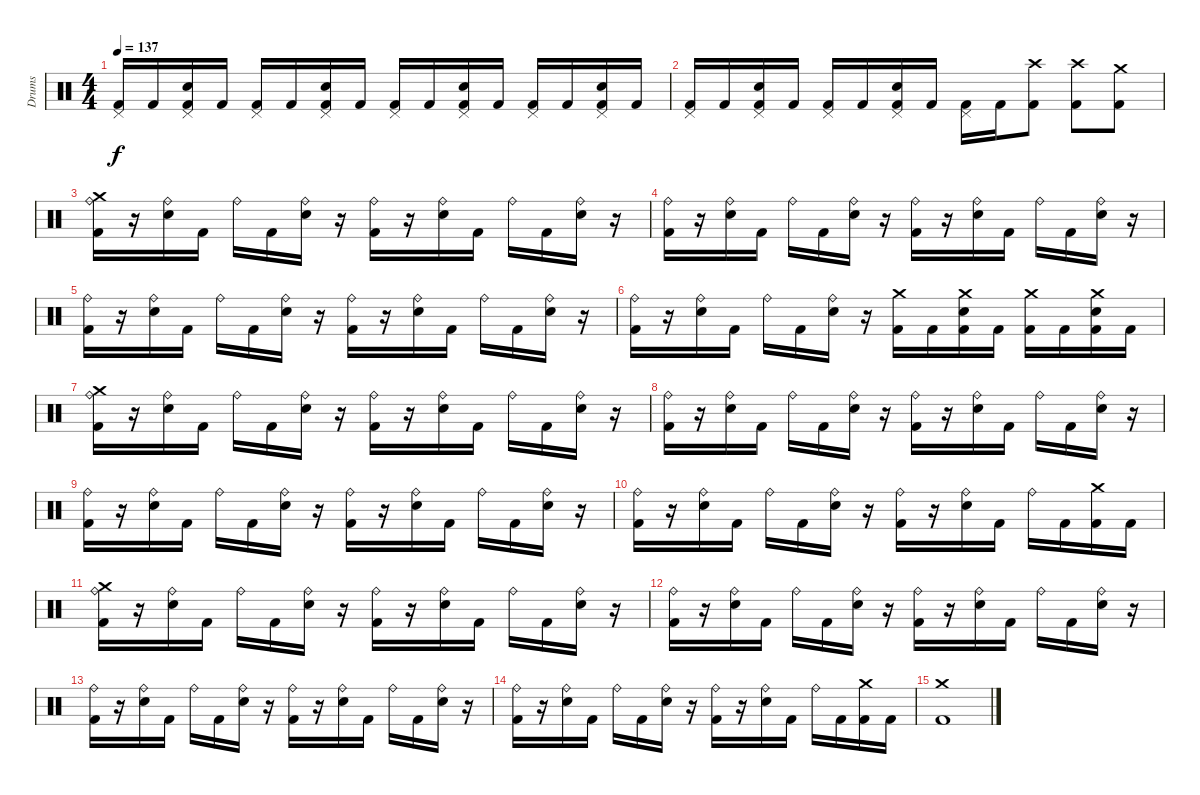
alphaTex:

\track ("Drums" "Drums") {instrument percussion}
\staff
\articulation defaults
\ts (4 4)
\tempo 137
\clef neutral
\ks c
("Pedal Hi-Hat (hit)" "Kick (hit) 2").16{dy f} "Kick (hit) 2".16 ("Pedal Hi-Hat (hit)" "Snare (hit) 2" "Kick (hit) 2").16 "Kick (hit) 2".16 ("Pedal Hi-Hat (hit)" "Kick (hit) 2").16 "Kick (hit) 2".16 ("Pedal Hi-Hat (hit)" "Snare (hit) 2" "Kick (hit) 2").16 "Kick (hit) 2".16 ("Pedal Hi-Hat (hit)" "Kick (hit) 2").16 "Kick (hit) 2".16 ("Pedal Hi-Hat (hit)" "Snare (hit) 2" "Kick (hit) 2").16 "Kick (hit) 2".16 ("Pedal Hi-Hat (hit)" "Kick (hit) 2").16 "Kick (hit) 2".16 ("Pedal Hi-Hat (hit)" "Snare (hit) 2" "Kick (hit) 2").16 "Kick (hit) 2".16 |
("Pedal Hi-Hat (hit)" "Kick (hit) 2").16 "Kick (hit) 2".16 ("Pedal Hi-Hat (hit)" "Snare (hit) 2" "Kick (hit) 2").16 "Kick (hit) 2".16 ("Pedal Hi-Hat (hit)" "Kick (hit) 2").16 "Kick (hit) 2".16 ("Pedal Hi-Hat (hit)" "Snare (hit) 2" "Kick (hit) 2").16 "Kick (hit) 2".16 ("Pedal Hi-Hat (hit)" "Kick (hit) 2").16 "Kick (hit) 2".16 ("Crash high (hit)" "Kick (hit) 2").8 ("Crash high (hit)" "Kick (hit) 2").8 ("Crash medium (hit)" "Kick (hit) 2").8 |
("Crash medium (hit)" "Ride (bell)" "Kick (hit) 2").16 r.16 ("Ride (bell)" "Snare (hit) 2").16 "Kick (hit) 2".16 "Ride (bell)".16 "Kick (hit) 2".16 ("Ride (bell)" "Snare (hit) 2").16 r.16 ("Ride (bell)" "Kick (hit) 2").16 r.16 ("Ride (bell)" "Snare (hit) 2").16 "Kick (hit) 2".16 "Ride (bell)".16 "Kick (hit) 2".16 ("Ride (bell)" "Snare (hit) 2").16 r.16 |
("Ride (bell)" "Kick (hit) 2").16 r.16 ("Ride (bell)" "Snare (hit) 2").16 "Kick (hit) 2".16 "Ride (bell)".16 "Kick (hit) 2".16 ("Ride (bell)" "Snare (hit) 2").16 r.16 ("Ride (bell)" "Kick (hit) 2").16 r.16 ("Ride (bell)" "Snare (hit) 2").16 "Kick (hit) 2".16 "Ride (bell)".16 "Kick (hit) 2".16 ("Ride (bell)" "Snare (hit) 2").16 r.16 |
("Ride (bell)" "Kick (hit) 2").16 r.16 ("Ride (bell)" "Snare (hit) 2").16 "Kick (hit) 2".16 "Ride (bell)".16 "Kick (hit) 2".16 ("Ride (bell)" "Snare (hit) 2").16 r.16 ("Ride (bell)" "Kick (hit) 2").16 r.16 ("Ride (bell)" "Snare (hit) 2").16 "Kick (hit) 2".16 "Ride (bell)".16 "Kick (hit) 2".16 ("Ride (bell)" "Snare (hit) 2").16 r.16 |
("Ride (bell)" "Kick (hit) 2").16 r.16 ("Ride (bell)" "Snare (hit) 2").16 "Kick (hit) 2".16 "Ride (bell)".16 "Kick (hit) 2".16 ("Ride (bell)" "Snare (hit) 2").16 r.16 ("Crash medium (hit)" "Kick (hit) 2").16 "Kick (hit) 2".16 ("Crash medium (hit)" "Snare (hit) 2" "Kick (hit) 2").16 "Kick (hit) 2".16 ("Crash medium (hit)" "Kick (hit) 2").16 "Kick (hit) 2".16 ("Crash medium (hit)" "Snare (hit) 2" "Kick (hit) 2").16 "Kick (hit) 2".16 |
("Crash medium (hit)" "Ride (bell)" "Kick (hit) 2").16 r.16 ("Ride (bell)" "Snare (hit) 2").16 "Kick (hit) 2".16 "Ride (bell)".16 "Kick (hit) 2".16 ("Ride (bell)" "Snare (hit) 2").16 r.16 ("Ride (bell)" "Kick (hit) 2").16 r.16 ("Ride (bell)" "Snare (hit) 2").16 "Kick (hit) 2".16 "Ride (bell)".16 "Kick (hit) 2".16 ("Ride (bell)" "Snare (hit) 2").16 r.16 |
("Ride (bell)" "Kick (hit) 2").16 r.16 ("Ride (bell)" "Snare (hit) 2").16 "Kick (hit) 2".16 "Ride (bell)".16 "Kick (hit) 2".16 ("Ride (bell)" "Snare (hit) 2").16 r.16 ("Ride (bell)" "Kick (hit) 2").16 r.16 ("Ride (bell)" "Snare (hit) 2").16 "Kick (hit) 2".16 "Ride (bell)".16 "Kick (hit) 2".16 ("Ride (bell)" "Snare (hit) 2").16 r.16 |
("Ride (bell)" "Kick (hit) 2").16 r.16 ("Ride (bell)" "Snare (hit) 2").16 "Kick (hit) 2".16 "Ride (bell)".16 "Kick (hit) 2".16 ("Ride (bell)" "Snare (hit) 2").16 r.16 ("Ride (bell)" "Kick (hit) 2").16 r.16 ("Ride (bell)" "Snare (hit) 2").16 "Kick (hit) 2".16 "Ride (bell)".16 "Kick (hit) 2".16 ("Ride (bell)" "Snare (hit) 2").16 r.16 |
("Ride (bell)" "Kick (hit) 2").16 r.16 ("Ride (bell)" "Snare (hit) 2").16 "Kick (hit) 2".16 "Ride (bell)".16 "Kick (hit) 2".16 ("Ride (bell)" "Snare (hit) 2").16 r.16 ("Ride (bell)" "Kick (hit) 2").16 r.16 ("Ride (bell)" "Snare (hit) 2").16 "Kick (hit) 2".16 "Ride (bell)".16 "Kick (hit) 2".16 ("Crash medium (hit)" "Kick (hit) 2").16 "Kick (hit) 2".16 |
("Crash medium (hit)" "Ride (bell)" "Kick (hit) 2").16 r.16 ("Ride (bell)" "Snare (hit) 2").16 "Kick (hit) 2".16 "Ride (bell)".16 "Kick (hit) 2".16 ("Ride (bell)" "Snare (hit) 2").16 r.16 ("Ride (bell)" "Kick (hit) 2").16 r.16 ("Ride (bell)" "Snare (hit) 2").16 "Kick (hit) 2".16 "Ride (bell)".16 "Kick (hit) 2".16 ("Ride (bell)" "Snare (hit) 2").16 r.16 |
("Ride (bell)" "Kick (hit) 2").16 r.16 ("Ride (bell)" "Snare (hit) 2").16 "Kick (hit) 2".16 "Ride (bell)".16 "Kick (hit) 2".16 ("Ride (bell)" "Snare (hit) 2").16 r.16 ("Ride (bell)" "Kick (hit) 2").16 r.16 ("Ride (bell)" "Snare (hit) 2").16 "Kick (hit) 2".16 "Ride (bell)".16 "Kick (hit) 2".16 ("Ride (bell)" "Snare (hit) 2").16 r.16 |
("Ride (bell)" "Kick (hit) 2").16 r.16 ("Ride (bell)" "Snare (hit) 2").16 "Kick (hit) 2".16 "Ride (bell)".16 "Kick (hit) 2".16 ("Ride (bell)" "Snare (hit) 2").16 r.16 ("Ride (bell)" "Kick (hit) 2").16 r.16 ("Ride (bell)" "Snare (hit) 2").16 "Kick (hit) 2".16 "Ride (bell)".16 "Kick (hit) 2".16 ("Ride (bell)" "Snare (hit) 2").16 r.16 |
("Ride (bell)" "Kick (hit) 2").16 r.16 ("Ride (bell)" "Snare (hit) 2").16 "Kick (hit) 2".16 "Ride (bell)".16 "Kick (hit) 2".16 ("Ride (bell)" "Snare (hit) 2").16 r.16 ("Ride (bell)" "Kick (hit) 2").16 r.16 ("Ride (bell)" "Snare (hit) 2").16 "Kick (hit) 2".16 "Ride (bell)".16 "Kick (hit) 2".16 ("Crash medium (hit)" "Kick (hit) 2").16 "Kick (hit) 2".16 |
("Crash medium (hit)" "Kick (hit) 2").1
